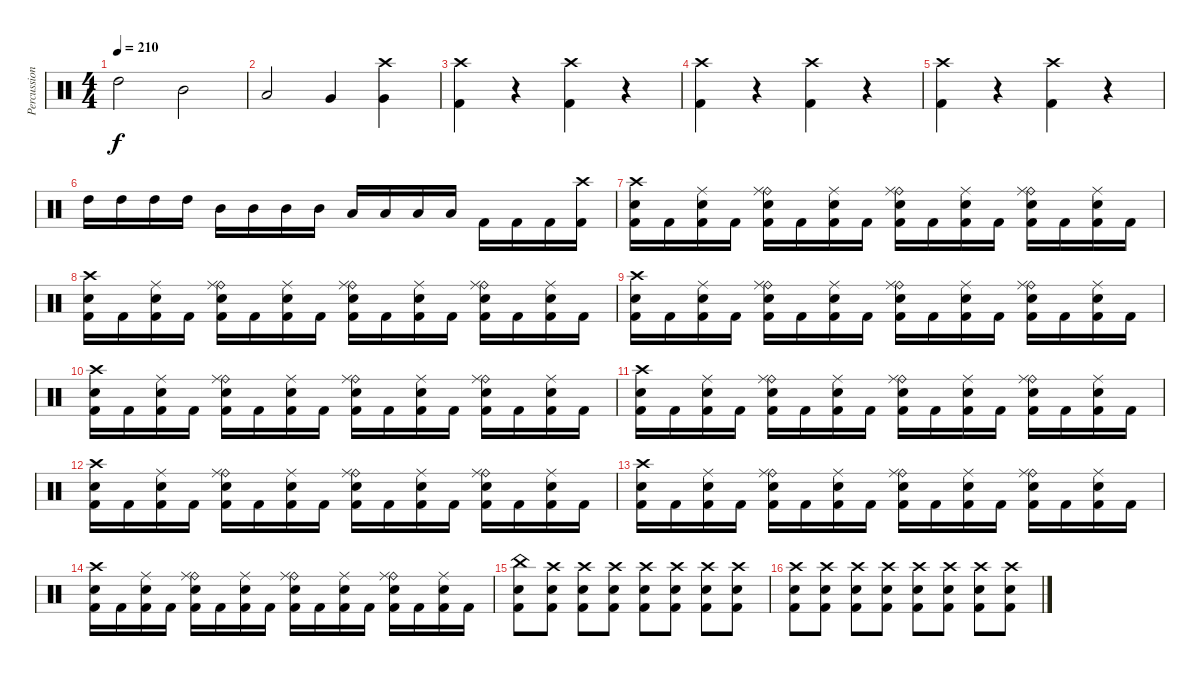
\track ("Percussion" "Percussion") {instrument percussion}
\staff {score}
\articulation defaults
\ts (4 4)
\tempo 210
\clef neutral
\ks c "High Tom (hit)".2{dy f} "Mid Tom (hit)".2
|
"Low Tom (hit)".2 "Very Low Tom (hit)".4 ("Crash high (hit)" "Very Low Tom (hit)").4 |
("Crash high (hit)" "Kick (hit) 2").4 r.4 ("Crash high (hit)" "Kick (hit) 2").4 r.4 |
("Crash high (hit)" "Kick (hit) 2").4 r.4 ("Crash high (hit)" "Kick (hit) 2").4 r.4 |
("Crash high (hit)" "Kick (hit) 2").4 r.4 ("Crash high (hit)" "Kick (hit) 2").4 r.4 |
"High Tom (hit)".16 "High Tom (hit)".16 "High Tom (hit)".16 "High Tom (hit)".16 "Mid Tom (hit)".16 "Mid Tom (hit)".16 "Mid Tom (hit)".16 "Mid Tom (hit)".16 "Low Tom (hit)".16 "Low Tom (hit)".16 "Low Tom (hit)".16 "Low Tom (hit)".16 "Kick (hit) 2".16 "Kick (hit) 2".16 "Kick (hit) 2".16 ("Crash high (hit)" "Kick (hit) 2").16 |
("Crash high (hit)" "Snare (hit) 2" "Kick (hit) 2").16 "Kick (hit) 2".16 ("Ride (middle)" "Snare (hit) 2" "Kick (hit) 2").16 "Kick (hit) 2".16 ("Ride (bell)" "Ride (middle)" "Snare (hit) 2" "Kick (hit) 2").16 "Kick (hit) 2".16 ("Ride (middle)" "Snare (hit) 2" "Kick (hit) 2").16 "Kick (hit) 2".16 ("Ride (bell)" "Ride (middle)" "Snare (hit) 2" "Kick (hit) 2").16 "Kick (hit) 2".16 ("Ride (middle)" "Snare (hit) 2" "Kick (hit) 2").16 "Kick (hit) 2".16 ("Ride (bell)" "Ride (middle)" "Snare (hit) 2" "Kick (hit) 2").16 "Kick (hit) 2".16 ("Ride (middle)" "Snare (hit) 2" "Kick (hit) 2").16 "Kick (hit) 2".16 |
("Crash high (hit)" "Snare (hit) 2" "Kick (hit) 2").16 "Kick (hit) 2".16 ("Ride (middle)" "Snare (hit) 2" "Kick (hit) 2").16 "Kick (hit) 2".16 ("Ride (bell)" "Ride (middle)" "Snare (hit) 2" "Kick (hit) 2").16 "Kick (hit) 2".16 ("Ride (middle)" "Snare (hit) 2" "Kick (hit) 2").16 "Kick (hit) 2".16 ("Ride (bell)" "Ride (middle)" "Snare (hit) 2" "Kick (hit) 2").16 "Kick (hit) 2".16 ("Ride (middle)" "Snare (hit) 2" "Kick (hit) 2").16 "Kick (hit) 2".16 ("Ride (bell)" "Ride (middle)" "Snare (hit) 2" "Kick (hit) 2").16 "Kick (hit) 2".16 ("Ride (middle)" "Snare (hit) 2" "Kick (hit) 2").16 "Kick (hit) 2".16 |
("Crash high (hit)" "Snare (hit) 2" "Kick (hit) 2").16 "Kick (hit) 2".16 ("Ride (middle)" "Snare (hit) 2" "Kick (hit) 2").16 "Kick (hit) 2".16 ("Ride (bell)" "Ride (middle)" "Snare (hit) 2" "Kick (hit) 2").16 "Kick (hit) 2".16 ("Ride (middle)" "Snare (hit) 2" "Kick (hit) 2").16 "Kick (hit) 2".16 ("Ride (bell)" "Ride (middle)" "Snare (hit) 2" "Kick (hit) 2").16 "Kick (hit) 2".16 ("Ride (middle)" "Snare (hit) 2" "Kick (hit) 2").16 "Kick (hit) 2".16 ("Ride (bell)" "Ride (middle)" "Snare (hit) 2" "Kick (hit) 2").16 "Kick (hit) 2".16 ("Ride (middle)" "Snare (hit) 2" "Kick (hit) 2").16 "Kick (hit) 2".16 |
("Crash high (hit)" "Snare (hit) 2" "Kick (hit) 2").16 "Kick (hit) 2".16 ("Ride (middle)" "Snare (hit) 2" "Kick (hit) 2").16 "Kick (hit) 2".16 ("Ride (bell)" "Ride (middle)" "Snare (hit) 2" "Kick (hit) 2").16 "Kick (hit) 2".16 ("Ride (middle)" "Snare (hit) 2" "Kick (hit) 2").16 "Kick (hit) 2".16 ("Ride (bell)" "Ride (middle)" "Snare (hit) 2" "Kick (hit) 2").16 "Kick (hit) 2".16 ("Ride (middle)" "Snare (hit) 2" "Kick (hit) 2").16 "Kick (hit) 2".16 ("Ride (bell)" "Ride (middle)" "Snare (hit) 2" "Kick (hit) 2").16 "Kick (hit) 2".16 ("Ride (middle)" "Snare (hit) 2" "Kick (hit) 2").16 "Kick (hit) 2".16 |
("Crash high (hit)" "Snare (hit) 2" "Kick (hit) 2").16 "Kick (hit) 2".16 ("Ride (middle)" "Snare (hit) 2" "Kick (hit) 2").16 "Kick (hit) 2".16 ("Ride (bell)" "Ride (middle)" "Snare (hit) 2" "Kick (hit) 2").16 "Kick (hit) 2".16 ("Ride (middle)" "Snare (hit) 2" "Kick (hit) 2").16 "Kick (hit) 2".16 ("Ride (bell)" "Ride (middle)" "Snare (hit) 2" "Kick (hit) 2").16 "Kick (hit) 2".16 ("Ride (middle)" "Snare (hit) 2" "Kick (hit) 2").16 "Kick (hit) 2".16 ("Ride (bell)" "Ride (middle)" "Snare (hit) 2" "Kick (hit) 2").16 "Kick (hit) 2".16 ("Ride (middle)" "Snare (hit) 2" "Kick (hit) 2").16 "Kick (hit) 2".16 |
("Crash high (hit)" "Snare (hit) 2" "Kick (hit) 2").16 "Kick (hit) 2".16 ("Ride (middle)" "Snare (hit) 2" "Kick (hit) 2").16 "Kick (hit) 2".16 ("Ride (bell)" "Ride (middle)" "Snare (hit) 2" "Kick (hit) 2").16 "Kick (hit) 2".16 ("Ride (middle)" "Snare (hit) 2" "Kick (hit) 2").16 "Kick (hit) 2".16 ("Ride (bell)" "Ride (middle)" "Snare (hit) 2" "Kick (hit) 2").16 "Kick (hit) 2".16 ("Ride (middle)" "Snare (hit) 2" "Kick (hit) 2").16 "Kick (hit) 2".16 ("Ride (bell)" "Ride (middle)" "Snare (hit) 2" "Kick (hit) 2").16 "Kick (hit) 2".16 ("Ride (middle)" "Snare (hit) 2" "Kick (hit) 2").16 "Kick (hit) 2".16 |
("Crash high (hit)" "Snare (hit) 2" "Kick (hit) 2").16 "Kick (hit) 2".16 ("Ride (middle)" "Snare (hit) 2" "Kick (hit) 2").16 "Kick (hit) 2".16 ("Ride (bell)" "Ride (middle)" "Snare (hit) 2" "Kick (hit) 2").16 "Kick (hit) 2".16 ("Ride (middle)" "Snare (hit) 2" "Kick (hit) 2").16 "Kick (hit) 2".16 ("Ride (bell)" "Ride (middle)" "Snare (hit) 2" "Kick (hit) 2").16 "Kick (hit) 2".16 ("Ride (middle)" "Snare (hit) 2" "Kick (hit) 2").16 "Kick (hit) 2".16 ("Ride (bell)" "Ride (middle)" "Snare (hit) 2" "Kick (hit) 2").16 "Kick (hit) 2".16 ("Ride (middle)" "Snare (hit) 2" "Kick (hit) 2").16 "Kick (hit) 2".16 |
("Crash high (hit)" "Snare (hit) 2" "Kick (hit) 2").16 "Kick (hit) 2".16 ("Ride (middle)" "Snare (hit) 2" "Kick (hit) 2").16 "Kick (hit) 2".16 ("Ride (bell)" "Ride (middle)" "Snare (hit) 2" "Kick (hit) 2").16 "Kick (hit) 2".16 ("Ride (middle)" "Snare (hit) 2" "Kick (hit) 2").16 "Kick (hit) 2".16 ("Ride (bell)" "Ride (middle)" "Snare (hit) 2" "Kick (hit) 2").16 "Kick (hit) 2".16 ("Ride (middle)" "Snare (hit) 2" "Kick (hit) 2").16 "Kick (hit) 2".16 ("Ride (bell)" "Ride (middle)" "Snare (hit) 2" "Kick (hit) 2").16 "Kick (hit) 2".16 ("Ride (middle)" "Snare (hit) 2" "Kick (hit) 2").16 "Kick (hit) 2".16 |
("China (hit)" "Snare (hit) 2" "Kick (hit) 2").8 ("Crash high (hit)" "Snare (hit) 2" "Kick (hit) 2").8 ("Crash high (hit)" "Snare (hit) 2" "Kick (hit) 2").8 ("Crash high (hit)" "Snare (hit) 2" "Kick (hit) 2").8 ("Crash high (hit)" "Snare (hit) 2" "Kick (hit) 2").8 ("Crash high (hit)" "Snare (hit) 2" "Kick (hit) 2").8 ("Crash high (hit)" "Snare (hit) 2" "Kick (hit) 2").8 ("Crash high (hit)" "Snare (hit) 2" "Kick (hit) 2").8 |
("Crash high (hit)" "Snare (hit) 2" "Kick (hit) 2").8 ("Crash high (hit)" "Snare (hit) 2" "Kick (hit) 2").8 ("Crash high (hit)" "Snare (hit) 2" "Kick (hit) 2").8 ("Crash high (hit)" "Snare (hit) 2" "Kick (hit) 2").8 ("Crash high (hit)" "Snare (hit) 2" "Kick (hit) 2").8 ("Crash high (hit)" "Snare (hit) 2" "Kick (hit) 2").8 ("Crash high (hit)" "Snare (hit) 2" "Kick (hit) 2").8 ("Crash high (hit)" "Snare (hit) 2" "Kick (hit) 2").8
